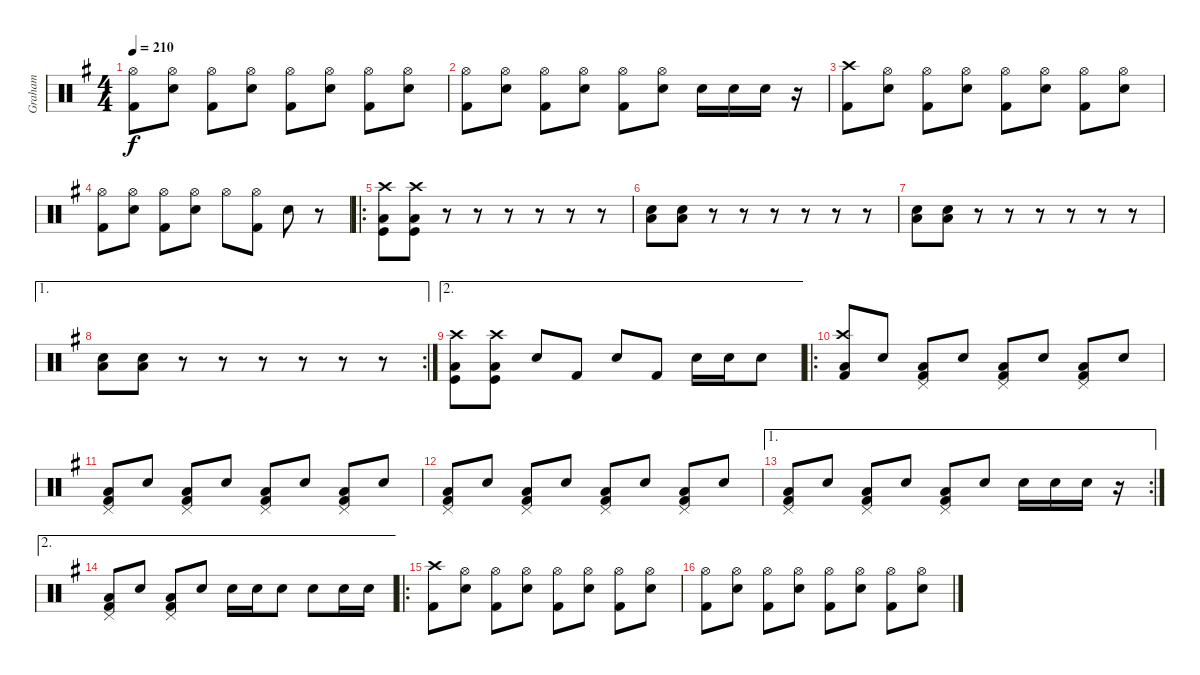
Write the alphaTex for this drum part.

\track ("Graham" "Graham") {instrument percussion}
\staff {score}
\articulation defaults
\ts (4 4)
\tempo 210
\clef neutral
\ks g
("Hi-Hat (open)" "Kick (hit) 2").8{dy f} ("Hi-Hat (open)" "Electric Snare (hit)").8 ("Hi-Hat (open)" "Kick (hit) 2").8 ("Hi-Hat (open)" "Electric Snare (hit)").8 ("Hi-Hat (open)" "Kick (hit) 2").8 ("Hi-Hat (open)" "Electric Snare (hit)").8 ("Hi-Hat (open)" "Kick (hit) 2").8 ("Hi-Hat (open)" "Electric Snare (hit)").8 |
("Hi-Hat (open)" "Kick (hit) 2").8 ("Hi-Hat (open)" "Electric Snare (hit)").8 ("Hi-Hat (open)" "Kick (hit) 2").8 ("Hi-Hat (open)" "Electric Snare (hit)").8 ("Hi-Hat (open)" "Kick (hit) 2").8 ("Hi-Hat (open)" "Electric Snare (hit)").8 "Electric Snare (hit)".16 "Electric Snare (hit)".16 "Electric Snare (hit)".16 r.16 |
("Crash high (hit)" "Kick (hit) 2").8 ("Hi-Hat (open)" "Electric Snare (hit)").8 ("Hi-Hat (open)" "Kick (hit) 2").8 ("Hi-Hat (open)" "Electric Snare (hit)").8 ("Hi-Hat (open)" "Kick (hit) 2").8 ("Hi-Hat (open)" "Electric Snare (hit)").8 ("Hi-Hat (open)" "Kick (hit) 2").8 ("Hi-Hat (open)" "Electric Snare (hit)").8 |
("Hi-Hat (open)" "Kick (hit) 2").8 ("Hi-Hat (open)" "Electric Snare (hit)").8 ("Hi-Hat (open)" "Kick (hit) 2").8 ("Hi-Hat (open)" "Electric Snare (hit)").8 "Hi-Hat (open)".8 ("Hi-Hat (open)" "Kick (hit) 2").8 "Electric Snare (hit)".8 r.8 |
\ro
("Crash high (hit)" "Low Floor Tom (hit)" "Kick (hit)").8 ("Crash high (hit)" "Low Floor Tom (hit)" "Kick (hit)").8 r.8 r.8 r.8 r.8 r.8 r.8 |
("Electric Snare (hit)" "Low Floor Tom (hit)").8 ("Electric Snare (hit)" "Low Floor Tom (hit)").8 r.8 r.8 r.8 r.8 r.8 r.8 |
("Electric Snare (hit)" "Low Floor Tom (hit)").8 ("Electric Snare (hit)" "Low Floor Tom (hit)").8 r.8 r.8 r.8 r.8 r.8 r.8 |
\ae 1
\rc 2
("Electric Snare (hit)" "Low Floor Tom (hit)").8 ("Electric Snare (hit)" "Low Floor Tom (hit)").8 r.8 r.8 r.8 r.8 r.8 r.8 |
\ae 2
("Crash high (hit)" "Low Floor Tom (hit)" "Kick (hit)").8 ("Crash high (hit)" "Low Floor Tom (hit)" "Kick (hit)").8 "Electric Snare (hit)".8 "Kick (hit) 2".8 "Electric Snare (hit)".8 "Kick (hit) 2".8 "Electric Snare (hit)".16 "Electric Snare (hit)".16 "Electric Snare (hit)".8 |
\ro
("Crash high (hit)" "Low Floor Tom (hit)" "Kick (hit) 2").8 "Electric Snare (hit)".8 ("Pedal Hi-Hat (hit)" "Low Floor Tom (hit)" "Kick (hit) 2").8 "Electric Snare (hit)".8 ("Pedal Hi-Hat (hit)" "Low Floor Tom (hit)" "Kick (hit) 2").8 "Electric Snare (hit)".8 ("Pedal Hi-Hat (hit)" "Low Floor Tom (hit)" "Kick (hit) 2").8 "Electric Snare (hit)".8 |
("Pedal Hi-Hat (hit)" "Low Floor Tom (hit)" "Kick (hit) 2").8 "Electric Snare (hit)".8 ("Pedal Hi-Hat (hit)" "Low Floor Tom (hit)" "Kick (hit) 2").8 "Electric Snare (hit)".8 ("Pedal Hi-Hat (hit)" "Low Floor Tom (hit)" "Kick (hit) 2").8 "Electric Snare (hit)".8 ("Pedal Hi-Hat (hit)" "Low Floor Tom (hit)" "Kick (hit) 2").8 "Electric Snare (hit)".8 |
("Pedal Hi-Hat (hit)" "Low Floor Tom (hit)" "Kick (hit) 2").8 "Electric Snare (hit)".8 ("Pedal Hi-Hat (hit)" "Low Floor Tom (hit)" "Kick (hit) 2").8 "Electric Snare (hit)".8 ("Pedal Hi-Hat (hit)" "Low Floor Tom (hit)" "Kick (hit) 2").8 "Electric Snare (hit)".8 ("Pedal Hi-Hat (hit)" "Low Floor Tom (hit)" "Kick (hit) 2").8 "Electric Snare (hit)".8 |
\ae 1
\rc 2
("Pedal Hi-Hat (hit)" "Low Floor Tom (hit)" "Kick (hit) 2").8 "Electric Snare (hit)".8 ("Pedal Hi-Hat (hit)" "Low Floor Tom (hit)" "Kick (hit) 2").8 "Electric Snare (hit)".8 ("Pedal Hi-Hat (hit)" "Low Floor Tom (hit)" "Kick (hit) 2").8 "Electric Snare (hit)".8 "Electric Snare (hit)".16 "Electric Snare (hit)".16 "Electric Snare (hit)".16 r.16 |
\ae 2
("Pedal Hi-Hat (hit)" "Low Floor Tom (hit)" "Kick (hit) 2").8 "Electric Snare (hit)".8 ("Pedal Hi-Hat (hit)" "Low Floor Tom (hit)" "Kick (hit) 2").8 "Electric Snare (hit)".8 "Electric Snare (hit)".16 "Electric Snare (hit)".16 "Electric Snare (hit)".8 "Electric Snare (hit)".8 "Electric Snare (hit)".16 "Electric Snare (hit)".16 |
\ro
("Crash high (hit)" "Kick (hit) 2").8 ("Hi-Hat (open)" "Electric Snare (hit)").8 ("Hi-Hat (open)" "Kick (hit) 2").8 ("Hi-Hat (open)" "Electric Snare (hit)").8 ("Hi-Hat (open)" "Kick (hit) 2").8 ("Hi-Hat (open)" "Electric Snare (hit)").8 ("Hi-Hat (open)" "Kick (hit) 2").8 ("Hi-Hat (open)" "Electric Snare (hit)").8 |
("Hi-Hat (open)" "Kick (hit) 2").8 ("Hi-Hat (open)" "Electric Snare (hit)").8 ("Hi-Hat (open)" "Kick (hit) 2").8 ("Hi-Hat (open)" "Electric Snare (hit)").8 ("Hi-Hat (open)" "Kick (hit) 2").8 ("Hi-Hat (open)" "Electric Snare (hit)").8 ("Hi-Hat (open)" "Kick (hit) 2").8 ("Hi-Hat (open)" "Electric Snare (hit)").8
